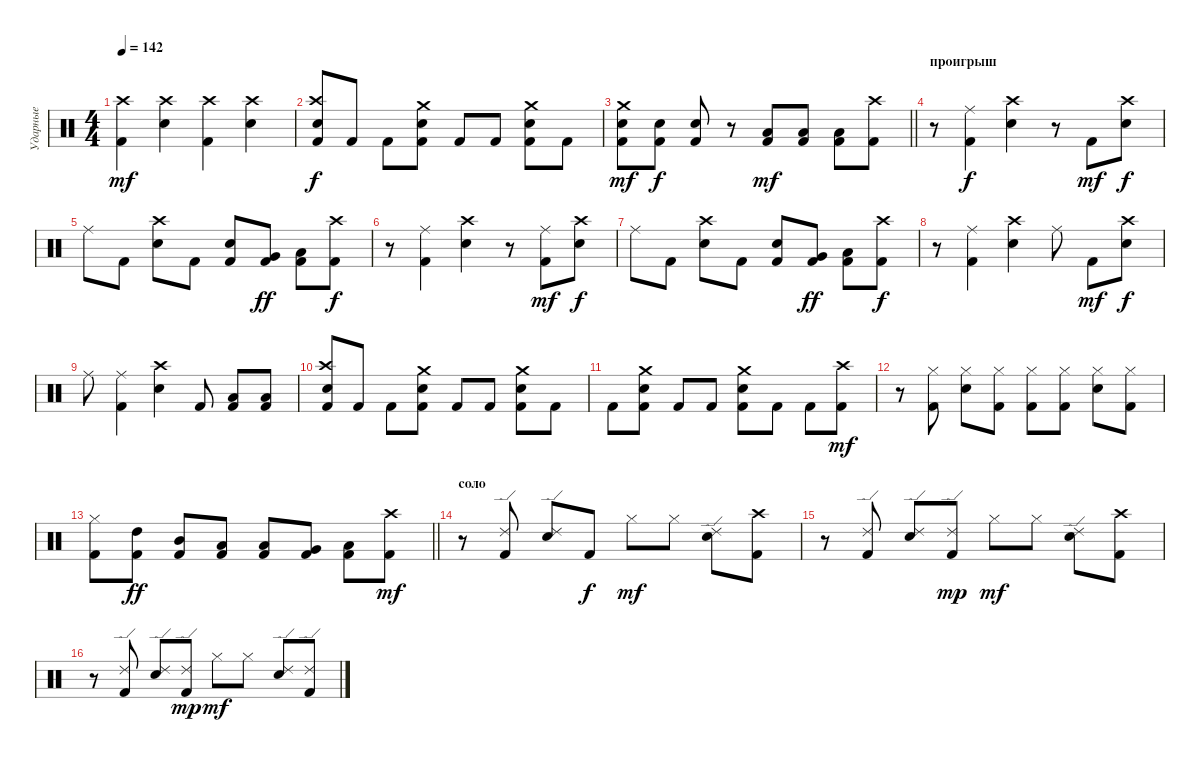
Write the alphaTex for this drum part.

\track ("Ударные" "Ударные") {instrument percussion}
\staff {score}
\articulation defaults
\ts (4 4)
\tempo 142
\clef neutral
\ks c
("Kick (hit) 2" "Crash high (hit)").4{dy mf} ("Electric Snare (hit)" "Crash high (hit)").4 ("Kick (hit) 2" "Crash high (hit)").4 ("Electric Snare (hit)" "Crash high (hit)").4 |
("Kick (hit) 2" "Electric Snare (hit)" "Crash high (hit)").8{dy f} "Kick (hit) 2".8 "Kick (hit) 2".8 ("Kick (hit) 2" "Electric Snare (hit)" "Crash medium (hit)").8 "Kick (hit) 2".8 "Kick (hit) 2".8 ("Kick (hit) 2" "Electric Snare (hit)" "Crash medium (hit)").8 "Kick (hit) 2".8 |
\barLineRight lightlight
("Kick (hit) 2" "Electric Snare (hit)" "Crash medium (hit)").8{dy mf} ("Kick (hit) 2" "Electric Snare (hit)").8{dy f} ("Kick (hit) 2" "Electric Snare (hit)").8 r.8 ("Kick (hit) 2" "Low Floor Tom (hit)").8{dy mf} ("Kick (hit) 2" "Low Floor Tom (hit)").8 ("Kick (hit) 2" "Low Floor Tom (hit)").8 ("Kick (hit) 2" "Crash high (hit)").8 |
\section ("" "проигрыш")
r.8 ("Kick (hit) 2" "Ride (middle)").4{dy f} ("Electric Snare (hit)" "Crash high (hit)").4 r.8 "Kick (hit) 2".8{dy mf} ("Electric Snare (hit)" "Crash high (hit)").8{dy f} |
"Ride (middle)".8 "Kick (hit) 2".8 ("Electric Snare (hit)" "Crash high (hit)").8 "Kick (hit) 2".8 ("Kick (hit) 2" "Electric Snare (hit)").8 ("Kick (hit) 2" "Very Low Tom (hit)").8{dy ff} ("Kick (hit) 2" "Low Floor Tom (hit)").8 ("Kick (hit) 2" "Crash high (hit)").8{dy f} |
r.8 ("Kick (hit) 2" "Ride (middle)").4 ("Electric Snare (hit)" "Crash high (hit)").4 r.8 ("Kick (hit) 2" "Ride (middle)").8{dy mf} ("Electric Snare (hit)" "Crash high (hit)").8{dy f} |
"Ride (middle)".8 "Kick (hit) 2".8 ("Electric Snare (hit)" "Crash high (hit)").8 "Kick (hit) 2".8 ("Kick (hit) 2" "Electric Snare (hit)").8 ("Kick (hit) 2" "Very Low Tom (hit)").8{dy ff} ("Kick (hit) 2" "Low Floor Tom (hit)").8 ("Kick (hit) 2" "Crash high (hit)").8{dy f} |
r.8 ("Kick (hit) 2" "Ride (middle)").4 ("Electric Snare (hit)" "Crash high (hit)").4 "Ride (middle)".8 "Kick (hit) 2".8{dy mf} ("Electric Snare (hit)" "Crash high (hit)").8{dy f} |
"Ride (middle)".8 ("Kick (hit) 2" "Ride (middle)").4 ("Electric Snare (hit)" "Crash high (hit)").4 "Kick (hit) 2".8 ("Kick (hit) 2" "Low Floor Tom (hit)").8 ("Kick (hit) 2" "Low Floor Tom (hit)").8 |
("Kick (hit) 2" "Electric Snare (hit)" "Crash high (hit)").8 "Kick (hit) 2".8 "Kick (hit) 2".8 ("Kick (hit) 2" "Electric Snare (hit)" "Crash medium (hit)").8 "Kick (hit) 2".8 "Kick (hit) 2".8 ("Kick (hit) 2" "Electric Snare (hit)" "Crash medium (hit)").8 "Kick (hit) 2".8 |
"Kick (hit) 2".8 ("Kick (hit) 2" "Electric Snare (hit)" "Crash medium (hit)").8 "Kick (hit) 2".8 "Kick (hit) 2".8 ("Kick (hit) 2" "Electric Snare (hit)" "Crash medium (hit)").8 "Kick (hit) 2".8 "Kick (hit) 2".8 ("Kick (hit) 2" "Crash high (hit)").8{dy mf} |
r.8 ("Kick (hit) 2" "Hi-Hat (closed)").8 ("Electric Snare (hit)" "Hi-Hat (closed)").8 ("Kick (hit) 2" "Hi-Hat (closed)").8 ("Kick (hit) 2" "Hi-Hat (closed)").8 ("Kick (hit) 2" "Hi-Hat (closed)").8 ("Electric Snare (hit)" "Hi-Hat (closed)").8 ("Kick (hit) 2" "Hi-Hat (closed)").8 |
\barLineRight lightlight
("Kick (hit) 2" "Hi-Hat (closed)").8 ("Kick (hit) 2" "High Tom (hit)").8{dy ff} ("Kick (hit) 2" "Mid Tom (hit)").8 ("Kick (hit) 2" "Low Tom (hit)").8 ("Kick (hit) 2" "Low Tom (hit)").8 ("Kick (hit) 2" "Very Low Tom (hit)").8 ("Kick (hit) 2" "Low Floor Tom (hit)").8 ("Kick (hit) 2" "Crash high (hit)").8{dy mf} |
\section ("" "соло")
r.8 ("Kick (hit) 2" "Ride (edge) 2").8 ("Electric Snare (hit)" "Ride (edge) 2").8 "Kick (hit) 2".8{dy f} "Hi-Hat (closed)".8{dy mf} "Hi-Hat (closed)".8 ("Electric Snare (hit)" "Ride (edge) 2").8 ("Kick (hit) 2" "Crash high (hit)").8 |
r.8 ("Kick (hit) 2" "Ride (edge) 2").8 ("Electric Snare (hit)" "Ride (edge) 2").8 ("Kick (hit) 2" "Ride (edge) 2").8{dy mp} "Hi-Hat (closed)".8{dy mf} "Hi-Hat (closed)".8 ("Electric Snare (hit)" "Ride (edge) 2").8 ("Kick (hit) 2" "Crash high (hit)").8 |
r.8 ("Kick (hit) 2" "Ride (edge) 2").8 ("Electric Snare (hit)" "Ride (edge) 2").8 ("Kick (hit) 2" "Ride (edge) 2").8{dy mp} "Hi-Hat (closed)".8{dy mf} "Hi-Hat (closed)".8 ("Electric Snare (hit)" "Ride (edge) 2").8 ("Kick (hit) 2" "Ride (edge) 2").8
